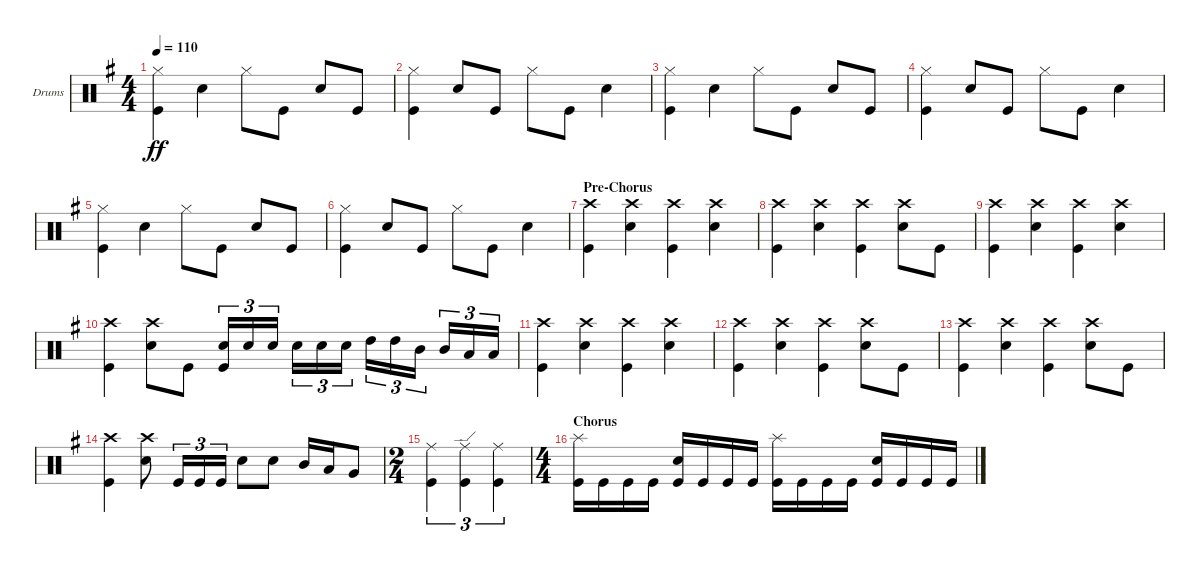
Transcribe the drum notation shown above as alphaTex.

\defaultSystemsLayout 4
\bracketExtendMode groupsimilarinstruments
\firstSystemTrackNameOrientation horizontal
\otherSystemsTrackNameOrientation horizontal
\track ("Drums" "Drums") {instrument percussion}
\staff {score}
\articulation defaults
\ts (4 4)
\tempo 110
\clef neutral
\ks eminor
("Kick (hit)" "Hi-Hat (closed)").4{dy ff} "Snare (hit) 2".4 "Hi-Hat (closed)".8 "Kick (hit)".8 "Snare (hit) 2".8 "Kick (hit)".8 |
("Kick (hit)" "Hi-Hat (closed)").4 "Snare (hit) 2".8 "Kick (hit)".8 "Hi-Hat (closed)".8 "Kick (hit)".8 "Snare (hit) 2".4 |
("Kick (hit)" "Hi-Hat (closed)").4 "Snare (hit) 2".4 "Hi-Hat (closed)".8 "Kick (hit)".8 "Snare (hit) 2".8 "Kick (hit)".8 |
("Kick (hit)" "Hi-Hat (closed)").4 "Snare (hit) 2".8 "Kick (hit)".8 "Hi-Hat (closed)".8 "Kick (hit)".8 "Snare (hit) 2".4 |
("Kick (hit)" "Hi-Hat (closed)").4 "Snare (hit) 2".4 "Hi-Hat (closed)".8 "Kick (hit)".8 "Snare (hit) 2".8 "Kick (hit)".8 |
("Kick (hit)" "Hi-Hat (closed)").4 "Snare (hit) 2".8 "Kick (hit)".8 "Hi-Hat (closed)".8 "Kick (hit)".8 "Snare (hit) 2".4 |
\section ("" "Pre-Chorus")
("Kick (hit)" "Crash high (hit)").4 ("Snare (hit) 2" "Crash high (hit)").4 ("Kick (hit)" "Crash high (hit)").4 ("Snare (hit) 2" "Crash high (hit)").4 |
("Kick (hit)" "Crash high (hit)").4 ("Crash high (hit)" "Snare (hit) 2").4 ("Kick (hit)" "Crash high (hit)").4 ("Crash high (hit)" "Snare (hit) 2").8 "Kick (hit)".8 |
("Kick (hit)" "Crash high (hit)").4 ("Crash high (hit)" "Snare (hit) 2").4 ("Kick (hit)" "Crash high (hit)").4 ("Crash high (hit)" "Snare (hit) 2").4 |
("Kick (hit)" "Crash high (hit)").4 ("Crash high (hit)" "Snare (hit) 2").8 "Kick (hit)".8 ("Snare (hit) 2" "Kick (hit)").16{tu (3 2)} "Snare (hit) 2".16{tu (3 2)} "Snare (hit) 2".16{tu (3 2)} "Snare (hit) 2".16{tu (3 2)} "Snare (hit) 2".16{tu (3 2)} "Snare (hit) 2".16{tu (3 2)} "High Tom (hit)".16{tu (3 2)} "High Tom (hit)".16{tu (3 2)} "Mid Tom (hit)".16{tu (3 2)} "Mid Tom (hit)".16{tu (3 2)} "Low Tom (hit)".16{tu (3 2)} "Low Tom (hit)".16{tu (3 2)} |
("Kick (hit)" "Crash high (hit)").4 ("Snare (hit) 2" "Crash high (hit)").4 ("Kick (hit)" "Crash high (hit)").4 ("Snare (hit) 2" "Crash high (hit)").4 |
("Kick (hit)" "Crash high (hit)").4 ("Crash high (hit)" "Snare (hit) 2").4 ("Kick (hit)" "Crash high (hit)").4 ("Crash high (hit)" "Snare (hit) 2").8 "Kick (hit)".8 |
("Kick (hit)" "Crash high (hit)").4 ("Crash high (hit)" "Snare (hit) 2").4 ("Kick (hit)" "Crash high (hit)").4 ("Crash high (hit)" "Snare (hit) 2").8 "Kick (hit)".8 |
("Kick (hit)" "Crash high (hit)").4 ("Crash high (hit)" "Snare (hit) 2").8 "Kick (hit)".16{tu (3 2)} "Kick (hit)".16{tu (3 2)} "Kick (hit)".16{tu (3 2)} "Snare (hit) 2".8 "Snare (hit) 2".8 "Mid Tom (hit)".16 "Low Tom (hit)".16 "Very Low Tom (hit)".8 |
\ts (2 4)
("Kick (hit)" "Ride (middle)").4{tu (3 2)} ("Kick (hit)" "Ride (edge)").4{tu (3 2)} ("Kick (hit)" "Ride (middle)").4{tu (3 2)} |
\ts (4 4)
\section ("" "Chorus")
("Kick (hit)" "Splash (hit)").16 "Kick (hit)".16 "Kick (hit)".16 "Kick (hit)".16 ("Kick (hit)" "Snare (hit) 2").16 "Kick (hit)".16 "Kick (hit)".16 "Kick (hit)".16 ("Kick (hit)" "Splash (hit)").16 "Kick (hit)".16 "Kick (hit)".16 "Kick (hit)".16 ("Kick (hit)" "Snare (hit) 2").16 "Kick (hit)".16 "Kick (hit)".16 "Kick (hit)".16
